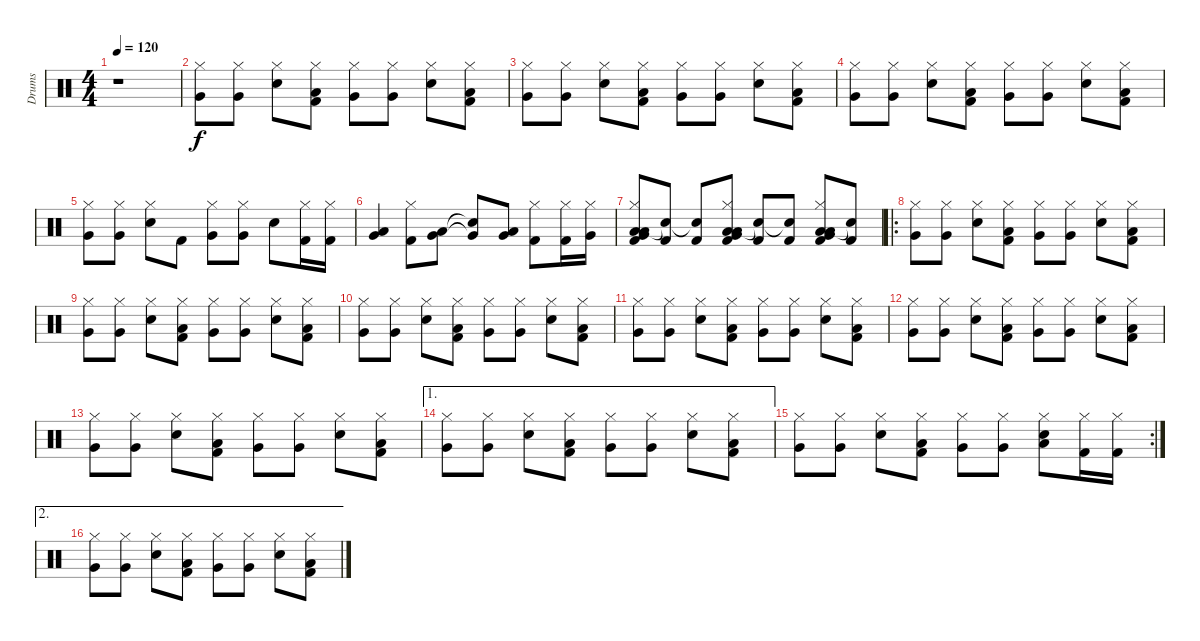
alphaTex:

\track ("Drums" "Drums") {instrument percussion}
\staff {score}
\articulation defaults
\ts (4 4)
\tempo 120
\clef neutral
\ks c
r.1{dy f} |
("Very Low Tom (hit)" "Hi-Hat (closed)").8 ("Very Low Tom (hit)" "Hi-Hat (closed)").8 ("Snare (hit) 2" "Hi-Hat (closed)").8 ("Low Floor Tom (hit)" "Kick (hit) 2" "Hi-Hat (closed)").8 ("Very Low Tom (hit)" "Hi-Hat (closed)").8 ("Very Low Tom (hit)" "Hi-Hat (closed)").8 ("Snare (hit) 2" "Hi-Hat (closed)").8 ("Low Floor Tom (hit)" "Kick (hit) 2" "Hi-Hat (closed)").8 |
("Very Low Tom (hit)" "Hi-Hat (closed)").8 ("Very Low Tom (hit)" "Hi-Hat (closed)").8 ("Snare (hit) 2" "Hi-Hat (closed)").8 ("Low Floor Tom (hit)" "Kick (hit) 2" "Hi-Hat (closed)").8 ("Very Low Tom (hit)" "Hi-Hat (closed)").8 ("Very Low Tom (hit)" "Hi-Hat (closed)").8 ("Snare (hit) 2" "Hi-Hat (closed)").8 ("Low Floor Tom (hit)" "Kick (hit) 2" "Hi-Hat (closed)").8 |
("Very Low Tom (hit)" "Hi-Hat (closed)").8 ("Very Low Tom (hit)" "Hi-Hat (closed)").8 ("Snare (hit) 2" "Hi-Hat (closed)").8 ("Low Floor Tom (hit)" "Kick (hit) 2" "Hi-Hat (closed)").8 ("Very Low Tom (hit)" "Hi-Hat (closed)").8 ("Very Low Tom (hit)" "Hi-Hat (closed)").8 ("Snare (hit) 2" "Hi-Hat (closed)").8 ("Low Floor Tom (hit)" "Kick (hit) 2" "Hi-Hat (closed)").8 |
("Very Low Tom (hit)" "Hi-Hat (closed)").8 ("Very Low Tom (hit)" "Hi-Hat (closed)").8 ("Snare (hit) 2" "Hi-Hat (closed)").8 "Kick (hit) 2".8 ("Very Low Tom (hit)" "Hi-Hat (closed)").8 ("Very Low Tom (hit)" "Hi-Hat (closed)").8 "Snare (hit) 2".8 ("Kick (hit) 2" "Hi-Hat (closed)").16 ("Kick (hit) 2" "Hi-Hat (closed)").16 |
("Low Floor Tom (hit)" "Very Low Tom (hit)").4 ("Kick (hit) 2" "Hi-Hat (closed)").8 ("Low Floor Tom (hit)" "Very Low Tom (hit)").8 ("Snare (hit)"{t} "Very Low Tom (hit)"{t}).8 ("Low Floor Tom (hit)" "Very Low Tom (hit)").8 ("Kick (hit) 2" "Hi-Hat (closed)").8 ("Kick (hit) 2" "Hi-Hat (closed)").16 ("Very Low Tom (hit)" "Hi-Hat (closed)").16 |
("Low Floor Tom (hit)" "Low Tom (hit)" "Kick (hit) 2" "Very Low Tom (hit)" "Hi-Hat (closed)").8 ("Kick (hit) 2" "Snare (hit)"{t}).8 ("Kick (hit) 2" "Snare (hit)"{t}).8 ("Low Floor Tom (hit)" "Low Tom (hit)" "Kick (hit) 2" "Very Low Tom (hit)" "Hi-Hat (closed)").8 ("Kick (hit) 2" "Snare (hit)"{t}).8 ("Kick (hit) 2" "Snare (hit)"{t}).8 ("Low Floor Tom (hit)" "Low Tom (hit)" "Kick (hit) 2" "Very Low Tom (hit)" "Hi-Hat (closed)").8 ("Kick (hit) 2" "Snare (hit)"{t}).8 |
\ro
("Very Low Tom (hit)" "Hi-Hat (closed)").8 ("Very Low Tom (hit)" "Hi-Hat (closed)").8 ("Snare (hit) 2" "Hi-Hat (closed)").8 ("Low Floor Tom (hit)" "Kick (hit) 2" "Hi-Hat (closed)").8 ("Very Low Tom (hit)" "Hi-Hat (closed)").8 ("Very Low Tom (hit)" "Hi-Hat (closed)").8 ("Snare (hit) 2" "Hi-Hat (closed)").8 ("Low Floor Tom (hit)" "Kick (hit) 2" "Hi-Hat (closed)").8 |
("Very Low Tom (hit)" "Hi-Hat (closed)").8 ("Very Low Tom (hit)" "Hi-Hat (closed)").8 ("Snare (hit) 2" "Hi-Hat (closed)").8 ("Low Floor Tom (hit)" "Kick (hit) 2" "Hi-Hat (closed)").8 ("Very Low Tom (hit)" "Hi-Hat (closed)").8 ("Very Low Tom (hit)" "Hi-Hat (closed)").8 ("Snare (hit) 2" "Hi-Hat (closed)").8 ("Low Floor Tom (hit)" "Kick (hit) 2" "Hi-Hat (closed)").8 |
("Very Low Tom (hit)" "Hi-Hat (closed)").8 ("Very Low Tom (hit)" "Hi-Hat (closed)").8 ("Snare (hit) 2" "Hi-Hat (closed)").8 ("Low Floor Tom (hit)" "Kick (hit) 2" "Hi-Hat (closed)").8 ("Very Low Tom (hit)" "Hi-Hat (closed)").8 ("Very Low Tom (hit)" "Hi-Hat (closed)").8 ("Snare (hit) 2" "Hi-Hat (closed)").8 ("Low Floor Tom (hit)" "Kick (hit) 2" "Hi-Hat (closed)").8 |
("Very Low Tom (hit)" "Hi-Hat (closed)").8 ("Very Low Tom (hit)" "Hi-Hat (closed)").8 ("Snare (hit) 2" "Hi-Hat (closed)").8 ("Low Floor Tom (hit)" "Kick (hit) 2" "Hi-Hat (closed)").8 ("Very Low Tom (hit)" "Hi-Hat (closed)").8 ("Very Low Tom (hit)" "Hi-Hat (closed)").8 ("Snare (hit) 2" "Hi-Hat (closed)").8 ("Low Floor Tom (hit)" "Kick (hit) 2" "Hi-Hat (closed)").8 |
("Very Low Tom (hit)" "Hi-Hat (closed)").8 ("Very Low Tom (hit)" "Hi-Hat (closed)").8 ("Snare (hit) 2" "Hi-Hat (closed)").8 ("Low Floor Tom (hit)" "Kick (hit) 2" "Hi-Hat (closed)").8 ("Very Low Tom (hit)" "Hi-Hat (closed)").8 ("Very Low Tom (hit)" "Hi-Hat (closed)").8 ("Snare (hit) 2" "Hi-Hat (closed)").8 ("Low Floor Tom (hit)" "Kick (hit) 2" "Hi-Hat (closed)").8 |
("Very Low Tom (hit)" "Hi-Hat (closed)").8 ("Very Low Tom (hit)" "Hi-Hat (closed)").8 ("Snare (hit) 2" "Hi-Hat (closed)").8 ("Low Floor Tom (hit)" "Kick (hit) 2" "Hi-Hat (closed)").8 ("Very Low Tom (hit)" "Hi-Hat (closed)").8 ("Very Low Tom (hit)" "Hi-Hat (closed)").8 ("Snare (hit) 2" "Hi-Hat (closed)").8 ("Low Floor Tom (hit)" "Kick (hit) 2" "Hi-Hat (closed)").8 |
\ae 1
("Very Low Tom (hit)" "Hi-Hat (closed)").8 ("Very Low Tom (hit)" "Hi-Hat (closed)").8 ("Snare (hit) 2" "Hi-Hat (closed)").8 ("Low Floor Tom (hit)" "Kick (hit) 2" "Hi-Hat (closed)").8 ("Very Low Tom (hit)" "Hi-Hat (closed)").8 ("Very Low Tom (hit)" "Hi-Hat (closed)").8 ("Snare (hit) 2" "Hi-Hat (closed)").8 ("Low Floor Tom (hit)" "Kick (hit) 2" "Hi-Hat (closed)").8 |
\rc 2
("Very Low Tom (hit)" "Hi-Hat (closed)").8 ("Very Low Tom (hit)" "Hi-Hat (closed)").8 ("Snare (hit) 2" "Hi-Hat (closed)").8 ("Low Floor Tom (hit)" "Kick (hit) 2" "Hi-Hat (closed)").8 ("Very Low Tom (hit)" "Hi-Hat (closed)").8 ("Very Low Tom (hit)" "Hi-Hat (closed)").8 ("Low Floor Tom (hit)" "Snare (hit) 2" "Hi-Hat (closed)").8 ("Kick (hit) 2" "Hi-Hat (closed)").16 ("Kick (hit) 2" "Hi-Hat (closed)").16 |
\ae 2
("Very Low Tom (hit)" "Hi-Hat (closed)").8 ("Very Low Tom (hit)" "Hi-Hat (closed)").8 ("Snare (hit) 2" "Hi-Hat (closed)").8 ("Low Floor Tom (hit)" "Kick (hit) 2" "Hi-Hat (closed)").8 ("Very Low Tom (hit)" "Hi-Hat (closed)").8 ("Very Low Tom (hit)" "Hi-Hat (closed)").8 ("Snare (hit) 2" "Hi-Hat (closed)").8 ("Low Floor Tom (hit)" "Kick (hit) 2" "Hi-Hat (closed)").8
